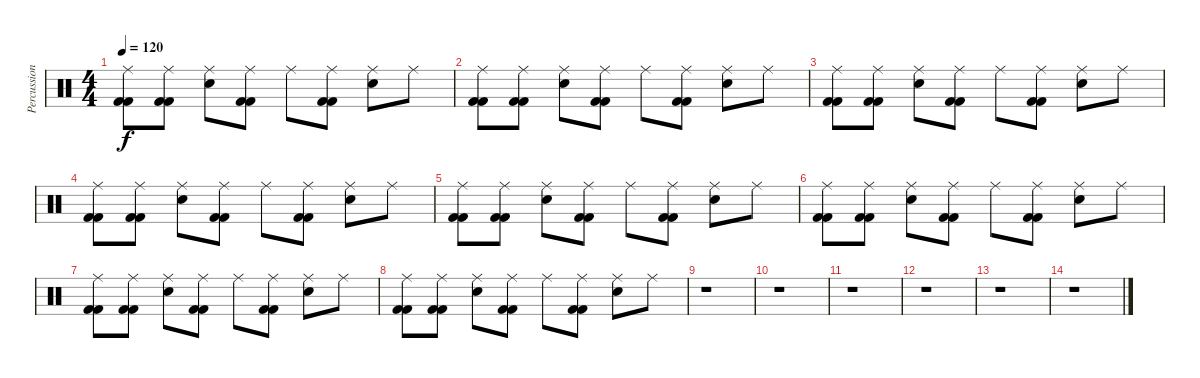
\track ("Percussion" "Percussion") {instrument percussion}
\staff {score}
\articulation defaults
\ts (4 4)
\tempo 120
\clef neutral
\ks c
("Ride (middle)" "Kick (hit) 2" "Kick (hit) 2").8{dy f} ("Ride (middle)" "Kick (hit) 2" "Kick (hit) 2").8 ("Ride (middle)" "Snare (hit) 2").8 ("Ride (middle)" "Kick (hit) 2" "Kick (hit) 2").8 "Ride (middle)".8 ("Ride (middle)" "Kick (hit) 2" "Kick (hit) 2").8 ("Ride (middle)" "Snare (hit) 2").8 "Ride (middle)".8 |
("Ride (middle)" "Kick (hit) 2" "Kick (hit) 2").8 ("Ride (middle)" "Kick (hit) 2" "Kick (hit) 2").8 ("Ride (middle)" "Snare (hit) 2").8 ("Ride (middle)" "Kick (hit) 2" "Kick (hit) 2").8 "Ride (middle)".8 ("Ride (middle)" "Kick (hit) 2" "Kick (hit) 2").8 ("Ride (middle)" "Snare (hit) 2").8 "Ride (middle)".8 |
("Ride (middle)" "Kick (hit) 2" "Kick (hit) 2").8 ("Ride (middle)" "Kick (hit) 2" "Kick (hit) 2").8 ("Ride (middle)" "Snare (hit) 2").8 ("Ride (middle)" "Kick (hit) 2" "Kick (hit) 2").8 "Ride (middle)".8 ("Ride (middle)" "Kick (hit) 2" "Kick (hit) 2").8 ("Ride (middle)" "Snare (hit) 2").8 "Ride (middle)".8 |
("Ride (middle)" "Kick (hit) 2" "Kick (hit) 2").8 ("Ride (middle)" "Kick (hit) 2" "Kick (hit) 2").8 ("Ride (middle)" "Snare (hit) 2").8 ("Ride (middle)" "Kick (hit) 2" "Kick (hit) 2").8 "Ride (middle)".8 ("Ride (middle)" "Kick (hit) 2" "Kick (hit) 2").8 ("Ride (middle)" "Snare (hit) 2").8 "Ride (middle)".8 |
("Ride (middle)" "Kick (hit) 2" "Kick (hit) 2").8 ("Ride (middle)" "Kick (hit) 2" "Kick (hit) 2").8 ("Ride (middle)" "Snare (hit) 2").8 ("Ride (middle)" "Kick (hit) 2" "Kick (hit) 2").8 "Ride (middle)".8 ("Ride (middle)" "Kick (hit) 2" "Kick (hit) 2").8 ("Ride (middle)" "Snare (hit) 2").8 "Ride (middle)".8 |
("Ride (middle)" "Kick (hit) 2" "Kick (hit) 2").8 ("Ride (middle)" "Kick (hit) 2" "Kick (hit) 2").8 ("Ride (middle)" "Snare (hit) 2").8 ("Ride (middle)" "Kick (hit) 2" "Kick (hit) 2").8 "Ride (middle)".8 ("Ride (middle)" "Kick (hit) 2" "Kick (hit) 2").8 ("Ride (middle)" "Snare (hit) 2").8 "Ride (middle)".8 |
("Ride (middle)" "Kick (hit) 2" "Kick (hit) 2").8 ("Ride (middle)" "Kick (hit) 2" "Kick (hit) 2").8 ("Ride (middle)" "Snare (hit) 2").8 ("Ride (middle)" "Kick (hit) 2" "Kick (hit) 2").8 "Ride (middle)".8 ("Ride (middle)" "Kick (hit) 2" "Kick (hit) 2").8 ("Ride (middle)" "Snare (hit) 2").8 "Ride (middle)".8 |
("Ride (middle)" "Kick (hit) 2" "Kick (hit) 2").8 ("Ride (middle)" "Kick (hit) 2" "Kick (hit) 2").8 ("Ride (middle)" "Snare (hit) 2").8 ("Ride (middle)" "Kick (hit) 2" "Kick (hit) 2").8 "Ride (middle)".8 ("Ride (middle)" "Kick (hit) 2" "Kick (hit) 2").8 ("Ride (middle)" "Snare (hit) 2").8 "Ride (middle)".8 |
r.1 |
r.1 |
r.1 |
r.1 |
r.1 |
r.1
